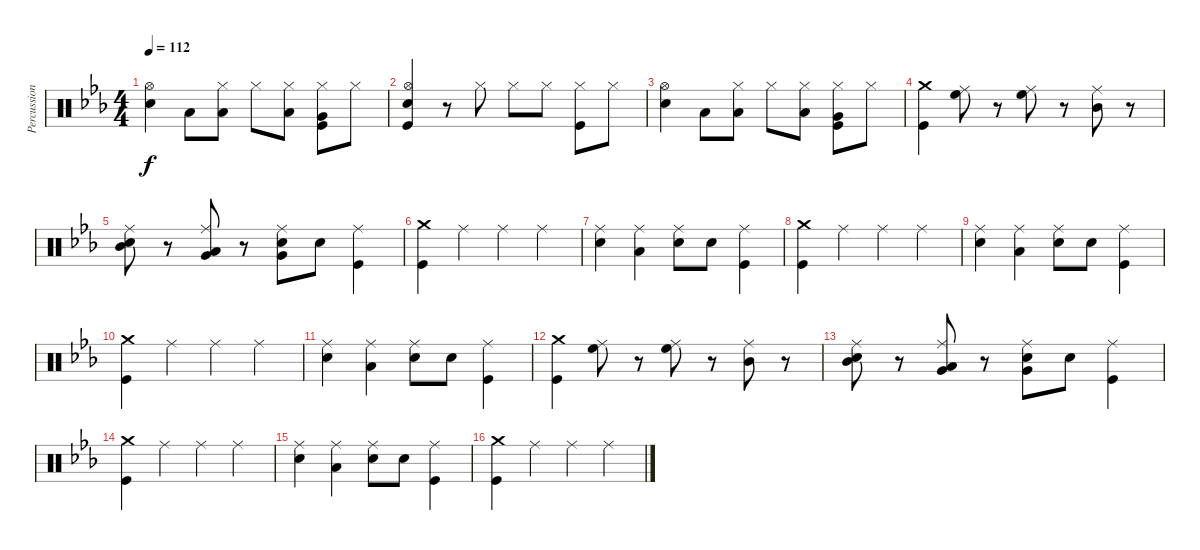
\track ("Percussion" "Percussion") {instrument percussion}
\staff {score}
\articulation defaults
\ts (4 4)
\tempo 112
\clef neutral
\ks cminor
("Snare (hit) 2" "Hi-Hat (open)").4{dy f} "Low Tom (hit)".8 ("Low Tom (hit)" "Hi-Hat (closed)").8 "Hi-Hat (closed)".8 ("Low Tom (hit)" "Hi-Hat (closed)").8 ("Very Low Tom (hit)" "Kick (hit)" "Hi-Hat (closed)").8 "Hi-Hat (closed)".8 |
("Hi-Hat (open)" "Kick (hit)" "Snare (hit) 2").4 r.8 "Hi-Hat (closed)".8 "Hi-Hat (closed)".8 "Hi-Hat (closed)".8 ("Kick (hit)" "Hi-Hat (closed)").8 "Hi-Hat (closed)".8 |
("Snare (hit) 2" "Hi-Hat (open)").4 "Low Tom (hit)".8 ("Low Tom (hit)" "Hi-Hat (closed)").8 "Hi-Hat (closed)".8 ("Low Tom (hit)" "Hi-Hat (closed)").8 ("Very Low Tom (hit)" "Kick (hit)" "Hi-Hat (closed)").8 "Hi-Hat (closed)".8 |
("Crash medium (hit)" "Kick (hit)").4 ("High Floor Tom (hit)" "Ride (middle)").8 r.8 ("High Floor Tom (hit)" "Ride (middle)").8 r.8 ("Mid Tom (hit)" "Ride (middle)").8 r.8 |
("Mid Tom (hit)" "Snare (hit) 2" "Ride (middle)").8 r.8 ("Very Low Tom (hit)" "Low Floor Tom (hit)" "Ride (middle)").8 r.8 ("Very Low Tom (hit)" "Snare (hit) 2" "Ride (middle)").8 "Snare (hit) 2".8 ("Kick (hit)" "Ride (middle)").4 |
("Crash medium (hit)" "Kick (hit)").4 "Ride (middle)".4 "Ride (middle)".4 "Ride (middle)".4 |
("Snare (hit) 2" "Ride (middle)").4 ("Low Floor Tom (hit)" "Ride (middle)").4 ("Snare (hit) 2" "Ride (middle)").8 "Snare (hit) 2".8 ("Kick (hit)" "Ride (middle)").4 |
("Crash medium (hit)" "Kick (hit)").4 "Ride (middle)".4 "Ride (middle)".4 "Ride (middle)".4 |
("Snare (hit) 2" "Ride (middle)").4 ("Low Floor Tom (hit)" "Ride (middle)").4 ("Snare (hit) 2" "Ride (middle)").8 "Snare (hit) 2".8 ("Kick (hit)" "Ride (middle)").4 |
("Crash medium (hit)" "Kick (hit)").4 "Ride (middle)".4 "Ride (middle)".4 "Ride (middle)".4 |
("Snare (hit) 2" "Ride (middle)").4 ("Low Floor Tom (hit)" "Ride (middle)").4 ("Snare (hit) 2" "Ride (middle)").8 "Snare (hit) 2".8 ("Kick (hit)" "Ride (middle)").4 |
("Crash medium (hit)" "Kick (hit)").4 ("High Floor Tom (hit)" "Ride (middle)").8 r.8 ("High Floor Tom (hit)" "Ride (middle)").8 r.8 ("Mid Tom (hit)" "Ride (middle)").8 r.8 |
("Mid Tom (hit)" "Snare (hit) 2" "Ride (middle)").8 r.8 ("Very Low Tom (hit)" "Low Floor Tom (hit)" "Ride (middle)").8 r.8 ("Very Low Tom (hit)" "Snare (hit) 2" "Ride (middle)").8 "Snare (hit) 2".8 ("Kick (hit)" "Ride (middle)").4 |
("Crash medium (hit)" "Kick (hit)").4 "Ride (middle)".4 "Ride (middle)".4 "Ride (middle)".4 |
("Snare (hit) 2" "Ride (middle)").4 ("Low Floor Tom (hit)" "Ride (middle)").4 ("Snare (hit) 2" "Ride (middle)").8 "Snare (hit) 2".8 ("Kick (hit)" "Ride (middle)").4 |
("Crash medium (hit)" "Kick (hit)").4 "Ride (middle)".4 "Ride (middle)".4 "Ride (middle)".4
